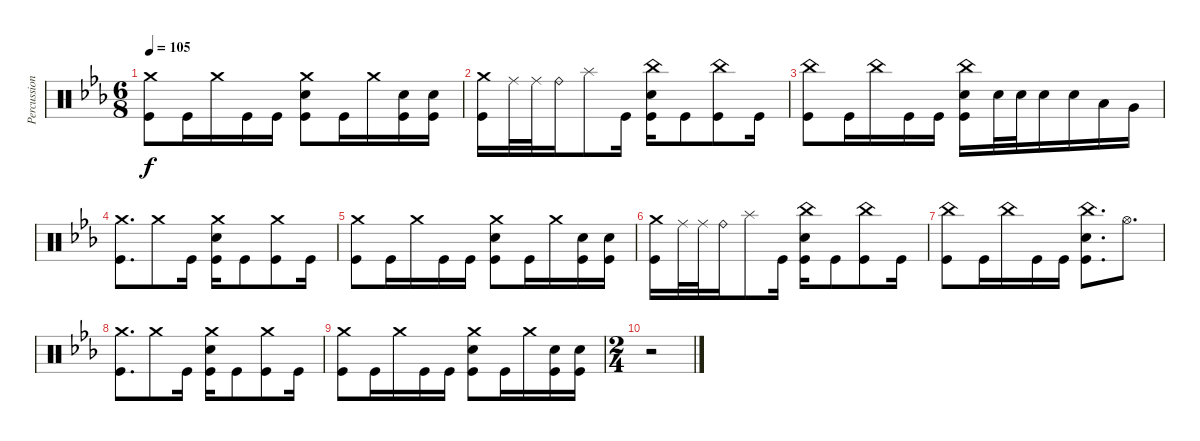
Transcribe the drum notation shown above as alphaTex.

\track ("Percussion" "Percussion") {instrument percussion}
\staff {score}
\articulation defaults
\ts (6 8)
\tempo 105
\clef neutral
\ks eb
("Crash medium (hit)" "Kick (hit)").8{dy f} "Kick (hit)".16 "Crash medium (hit)".16 "Kick (hit)".16 "Kick (hit)".16 ("Crash medium (hit)" "Electric Snare (hit)" "Kick (hit)").8 "Kick (hit)".16 "Crash medium (hit)".16 ("Electric Snare (hit)" "Kick (hit)").16 ("Electric Snare (hit)" "Kick (hit)").16 |
("Crash medium (hit)" "Kick (hit)").16{volume 4} "Ride (middle)".32 "Ride (middle)".32 "Ride (bell)".16 "Splash (hit)".8 "Kick (hit)".16 ("China (hit)" "Electric Snare (hit)" "Kick (hit)").16 "Kick (hit)".8 ("China (hit)" "Kick (hit)").8 "Kick (hit)".16 |
("China (hit)" "Kick (hit)").8 "Kick (hit)".16 "China (hit)".16 "Kick (hit)".16 "Kick (hit)".16 ("China (hit)" "Electric Snare (hit)" "Kick (hit)").16 "Electric Snare (hit)".32 "Electric Snare (hit)".32 "Electric Snare (hit)".16 "Electric Snare (hit)".16 "Low Tom (hit)".16 "Very Low Tom (hit)".16 |
("Crash medium (hit)" "Kick (hit)").8{d} "Crash medium (hit)".8 "Kick (hit)".16 ("Crash medium (hit)" "Electric Snare (hit)" "Kick (hit)").16 "Kick (hit)".8 ("Crash medium (hit)" "Kick (hit)").8 "Kick (hit)".16 |
("Crash medium (hit)" "Kick (hit)").8 "Kick (hit)".16 "Crash medium (hit)".16 "Kick (hit)".16 "Kick (hit)".16 ("Crash medium (hit)" "Electric Snare (hit)" "Kick (hit)").8 "Kick (hit)".16 "Crash medium (hit)".16 ("Electric Snare (hit)" "Kick (hit)").16 ("Electric Snare (hit)" "Kick (hit)").16 |
("Crash medium (hit)" "Kick (hit)").16{volume 0} "Ride (middle)".32 "Ride (middle)".32 "Ride (bell)".16 "Splash (hit)".8 "Kick (hit)".16 ("China (hit)" "Electric Snare (hit)" "Kick (hit)").16 "Kick (hit)".8 ("China (hit)" "Kick (hit)").8 "Kick (hit)".16 |
("China (hit)" "Kick (hit)").8 "Kick (hit)".16 "China (hit)".16 "Kick (hit)".16 "Kick (hit)".16 ("China (hit)" "Electric Snare (hit)" "Kick (hit)").8{d} "Hi-Hat (open)".8{d} |
("Crash medium (hit)" "Kick (hit)").8{d} "Crash medium (hit)".8 "Kick (hit)".16 ("Crash medium (hit)" "Electric Snare (hit)" "Kick (hit)").16 "Kick (hit)".8 ("Crash medium (hit)" "Kick (hit)").8 "Kick (hit)".16 |
("Crash medium (hit)" "Kick (hit)").8 "Kick (hit)".16 "Crash medium (hit)".16 "Kick (hit)".16 "Kick (hit)".16 ("Crash medium (hit)" "Electric Snare (hit)" "Kick (hit)").8 "Kick (hit)".16 "Crash medium (hit)".16 ("Electric Snare (hit)" "Kick (hit)").16 ("Electric Snare (hit)" "Kick (hit)").16 |
\ts (2 4)
r.2
